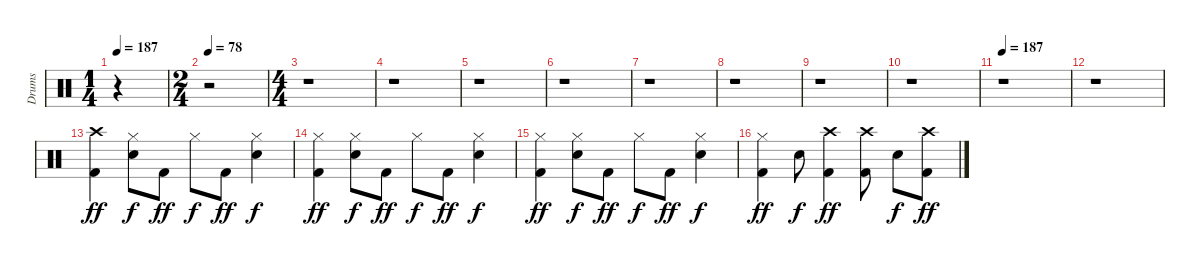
\track ("Drums" "Drums") {instrument percussion}
\staff {score}
\articulation defaults
\ts (1 4)
\tempo 187
\tempo 78
\tempo 187
\clef neutral
\ks c
r.4{dy ff} |
\ts (2 4)
\tempo 78
r.2 |
\ts (4 4)
r.1 |
r.1 |
r.1 |
r.1 |
r.1 |
r.1 |
r.1 |
r.1 |
\tempo 187
r.1 |
r.1 |
("Crash high (hit)" "Kick (hit) 2").4 ("Hi-Hat (closed)" "Electric Snare (hit)").8{dy f} "Kick (hit) 2".8{dy ff} "Hi-Hat (closed)".8{dy f} "Kick (hit) 2".8{dy ff} ("Hi-Hat (closed)" "Electric Snare (hit)").4{dy f} |
("Hi-Hat (closed)" "Kick (hit) 2").4{dy ff} ("Hi-Hat (closed)" "Electric Snare (hit)").8{dy f} "Kick (hit) 2".8{dy ff} "Hi-Hat (closed)".8{dy f} "Kick (hit) 2".8{dy ff} ("Hi-Hat (closed)" "Electric Snare (hit)").4{dy f} |
("Hi-Hat (closed)" "Kick (hit) 2").4{dy ff} ("Hi-Hat (closed)" "Electric Snare (hit)").8{dy f} "Kick (hit) 2".8{dy ff} "Hi-Hat (closed)".8{dy f} "Kick (hit) 2".8{dy ff} ("Hi-Hat (closed)" "Electric Snare (hit)").4{dy f} |
("Hi-Hat (closed)" "Kick (hit) 2").4{dy ff} "Electric Snare (hit)".8{dy f} ("Crash high (hit)" "Kick (hit) 2").4{dy ff} ("Crash high (hit)" "Kick (hit) 2").8 "Electric Snare (hit)".8{dy f} ("Crash high (hit)" "Kick (hit) 2").8{dy ff}
